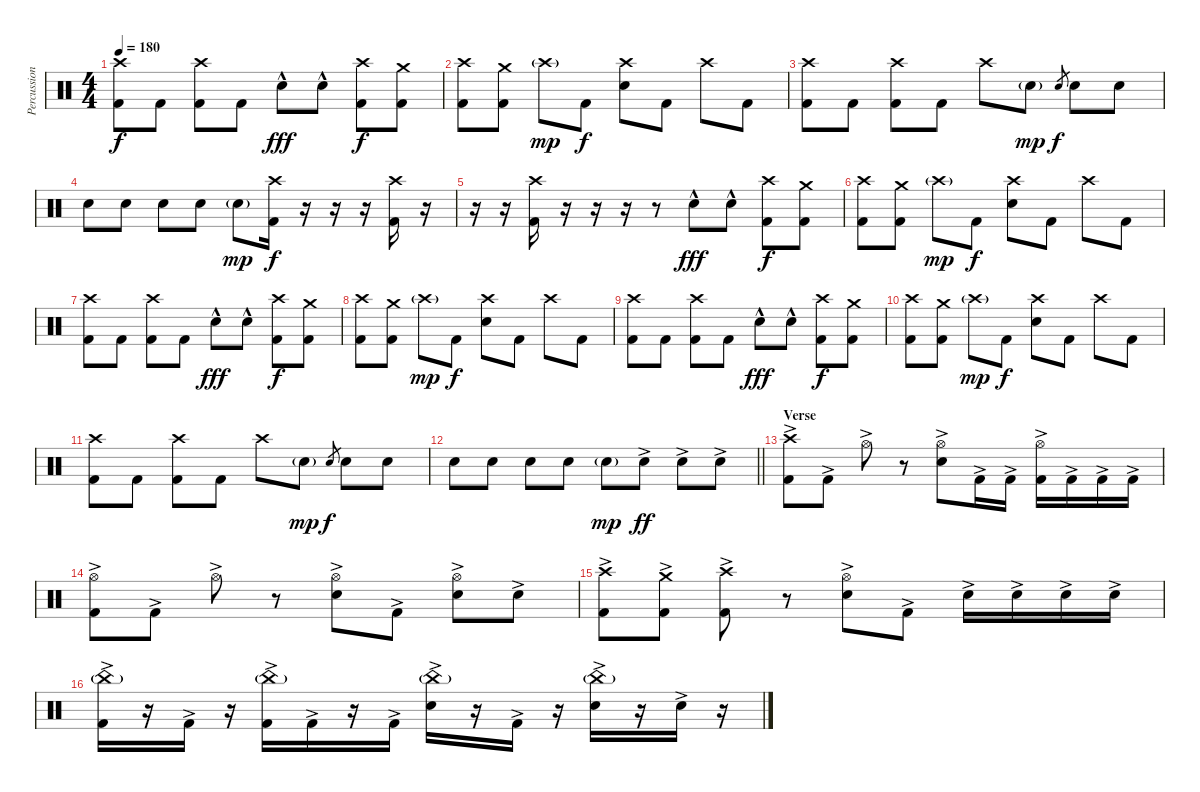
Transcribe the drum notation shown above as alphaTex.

\track ("Percussion" "Percussion") {instrument percussion}
\staff {score}
\articulation defaults
\ts (4 4)
\tempo 180
\clef neutral
\ks c
("Crash high (hit)" "Kick (hit) 2").8{dy f} "Kick (hit) 2".8 ("Crash high (hit)" "Kick (hit) 2").8 "Kick (hit) 2".8 "Electric Snare (hit)"{hac}.8{dy fff} "Electric Snare (hit)"{hac}.8 ("Crash high (hit)" "Kick (hit) 2").8{dy f} ("Crash medium (hit)" "Kick (hit) 2").8 |
("Crash high (hit)" "Kick (hit) 2").8 ("Crash medium (hit)" "Kick (hit) 2").8 "Crash high (hit)"{g}.8{dy mp} "Kick (hit) 2".8{dy f} ("Crash high (hit)" "Electric Snare (hit)").8 "Kick (hit) 2".8 "Crash high (hit)".8 "Kick (hit) 2".8 |
("Crash high (hit)" "Kick (hit) 2").8 "Kick (hit) 2".8 ("Crash high (hit)" "Kick (hit) 2").8 "Kick (hit) 2".8 "Crash high (hit)".8 "Electric Snare (hit)"{g}.8{dy mp} "Electric Snare (hit)".8{gr dy f} "Electric Snare (hit)".8 "Electric Snare (hit)".8 |
"Electric Snare (hit)".8 "Electric Snare (hit)".8 "Electric Snare (hit)".8 "Electric Snare (hit)".8 "Electric Snare (hit)"{g}.8{dy mp} ("Crash high (hit)" "Kick (hit) 2").16{dy f volume 11} r.16{volume 0} r.16 r.16 ("Crash high (hit)" "Kick (hit) 2").16{volume 11} r.16{volume 0} |
r.16 r.16 ("Crash high (hit)" "Kick (hit) 2").16{volume 11} r.16{volume 0} r.16 r.16 r.8 "Electric Snare (hit)"{hac}.8{dy fff volume 15} "Electric Snare (hit)"{hac}.8 ("Crash high (hit)" "Kick (hit) 2").8{dy f} ("Crash medium (hit)" "Kick (hit) 2").8 |
("Crash high (hit)" "Kick (hit) 2").8 ("Crash medium (hit)" "Kick (hit) 2").8 "Crash high (hit)"{g}.8{dy mp} "Kick (hit) 2".8{dy f} ("Crash high (hit)" "Electric Snare (hit)").8 "Kick (hit) 2".8 "Crash high (hit)".8 "Kick (hit) 2".8 |
("Crash high (hit)" "Kick (hit) 2").8 "Kick (hit) 2".8 ("Crash high (hit)" "Kick (hit) 2").8 "Kick (hit) 2".8 "Electric Snare (hit)"{hac}.8{dy fff} "Electric Snare (hit)"{hac}.8 ("Crash high (hit)" "Kick (hit) 2").8{dy f} ("Crash medium (hit)" "Kick (hit) 2").8 |
("Crash high (hit)" "Kick (hit) 2").8 ("Crash medium (hit)" "Kick (hit) 2").8 "Crash high (hit)"{g}.8{dy mp} "Kick (hit) 2".8{dy f} ("Crash high (hit)" "Electric Snare (hit)").8 "Kick (hit) 2".8 "Crash high (hit)".8 "Kick (hit) 2".8 |
("Crash high (hit)" "Kick (hit) 2").8 "Kick (hit) 2".8 ("Crash high (hit)" "Kick (hit) 2").8 "Kick (hit) 2".8 "Electric Snare (hit)"{hac}.8{dy fff} "Electric Snare (hit)"{hac}.8 ("Crash high (hit)" "Kick (hit) 2").8{dy f} ("Crash medium (hit)" "Kick (hit) 2").8 |
("Crash high (hit)" "Kick (hit) 2").8 ("Crash medium (hit)" "Kick (hit) 2").8 "Crash high (hit)"{g}.8{dy mp} "Kick (hit) 2".8{dy f} ("Crash high (hit)" "Electric Snare (hit)").8 "Kick (hit) 2".8 "Crash high (hit)".8 "Kick (hit) 2".8 |
("Crash high (hit)" "Kick (hit) 2").8 "Kick (hit) 2".8 ("Crash high (hit)" "Kick (hit) 2").8 "Kick (hit) 2".8 "Crash high (hit)".8 "Electric Snare (hit)"{g}.8{dy mp} "Electric Snare (hit)".8{gr dy f} "Electric Snare (hit)".8 "Electric Snare (hit)".8 |
\barLineRight lightlight "Electric Snare (hit)".8 "Electric Snare (hit)".8 "Electric Snare (hit)".8 "Electric Snare (hit)".8 "Electric Snare (hit)"{g}.8{dy mp} "Electric Snare (hit)"{ac}.8{dy ff} "Electric Snare (hit)"{ac}.8 "Electric Snare (hit)"{ac}.8
|
\section ("" "Verse")
("Crash high (hit)"{ac} "Kick (hit) 2"{ac}).8 "Kick (hit) 2"{ac}.8 "Hi-Hat (open)"{ac}.8 r.8 ("Hi-Hat (open)"{ac} "Electric Snare (hit)"{ac}).8 "Kick (hit) 2"{ac}.16 "Kick (hit) 2"{ac}.16 ("Hi-Hat (open)"{ac} "Kick (hit) 2"{ac}).16 "Kick (hit) 2"{ac}.16 "Kick (hit) 2"{ac}.16 "Kick (hit) 2"{ac}.16 |
("Hi-Hat (open)"{ac} "Kick (hit) 2"{ac}).8 "Kick (hit) 2"{ac}.8 "Hi-Hat (open)"{ac}.8 r.8 ("Hi-Hat (open)"{ac} "Electric Snare (hit)"{ac}).8 "Kick (hit) 2"{ac}.8 ("Hi-Hat (open)"{ac} "Electric Snare (hit)"{ac}).8 "Electric Snare (hit)"{ac}.8 |
("Crash high (hit)"{ac} "Kick (hit) 2"{ac}).8 ("Crash medium (hit)"{ac} "Kick (hit) 2"{ac}).8 ("Crash high (hit)"{ac} "Kick (hit) 2"{ac}).8 r.8 ("Hi-Hat (open)"{ac} "Electric Snare (hit)"{ac}).8 "Kick (hit) 2"{ac}.8 "Electric Snare (hit)"{ac}.16 "Electric Snare (hit)"{ac}.16 "Electric Snare (hit)"{ac}.16 "Electric Snare (hit)"{ac}.16 |
("China (hit)"{g} "Kick (hit) 2"{ac}).16 r.16 "Kick (hit) 2"{ac}.16 r.16 ("China (hit)"{g} "Kick (hit) 2"{ac}).16 "Kick (hit) 2"{ac}.16 r.16 "Kick (hit) 2"{ac}.16 ("China (hit)"{g} "Electric Snare (hit)"{ac}).16 r.16 "Kick (hit) 2"{ac}.16 r.16 ("China (hit)"{g} "Electric Snare (hit)"{ac}).16 r.16 "Electric Snare (hit)"{ac}.16 r.16
